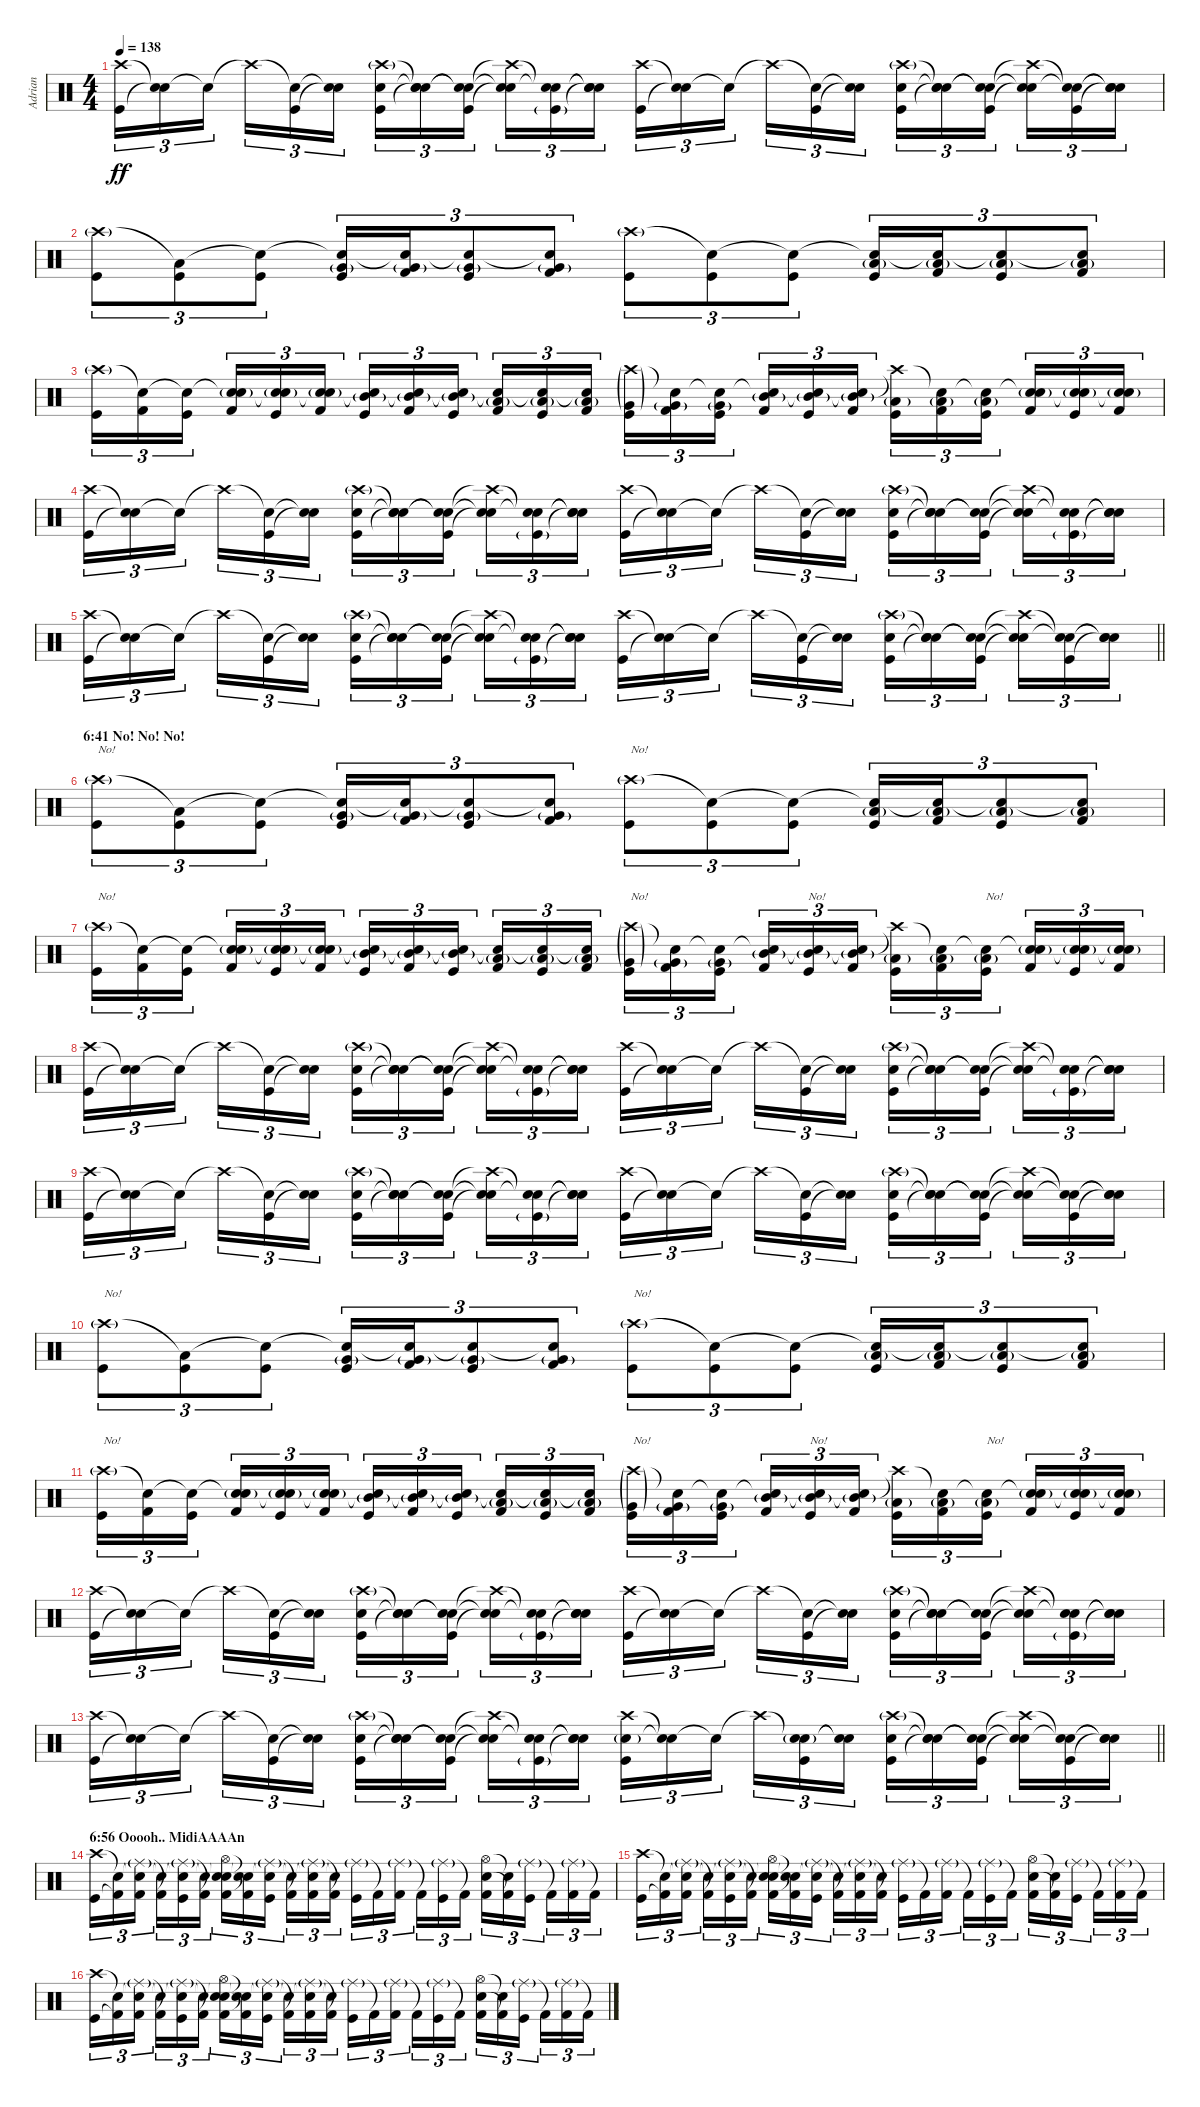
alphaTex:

\track ("Adrian" "Adrian") {instrument percussion}
\staff {score}
\articulation defaults
\ts (4 4)
\tempo 138
\clef neutral
\ks c
("Crash high (hit)" "Kick (hit)").16{tu (3 2) dy ff} ("Snare (hit)"{t} "Snare (hit)"{t}).16{tu (3 2)} "Snare (hit)"{t}.16{tu (3 2) beam splitsecondary} "Crash high (hit)"{t}.16{tu (3 2)} ("Snare (hit)"{t} "Kick (hit)").16{tu (3 2)} ("Snare (hit)"{t} "Snare (hit)"{t}).16{tu (3 2)} ("Crash high (hit)"{g} "Electric Snare (hit)" "Kick (hit)").16{tu (3 2)} ("Snare (hit)"{t} "Snare (hit)"{t} "Snare (hit)"{t}).16{tu (3 2)} ("Snare (hit)"{t} "Snare (hit)"{t} "Kick (hit)").16{tu (3 2) beam splitsecondary} ("Crash high (hit)"{t} "Snare (hit)"{t} "Snare (hit)"{t}).16{tu (3 2)} ("Snare (hit)"{t} "Snare (hit)"{t} "Kick (hit)"{g}).16{tu (3 2)} ("Snare (hit)"{t} "Snare (hit)"{t} "Snare (hit)"{t}).16{tu (3 2)} ("Crash high (hit)" "Kick (hit)").16{tu (3 2)} ("Snare (hit)"{t} "Snare (hit)"{t}).16{tu (3 2)} "Snare (hit)"{t}.16{tu (3 2) beam splitsecondary} "Crash high (hit)"{t}.16{tu (3 2)} ("Snare (hit)"{t} "Kick (hit)").16{tu (3 2)} ("Snare (hit)"{t} "Snare (hit)"{t}).16{tu (3 2)} ("Crash high (hit)"{g} "Electric Snare (hit)" "Kick (hit)").16{tu (3 2)} ("Snare (hit)"{t} "Snare (hit)"{t} "Snare (hit)"{t}).16{tu (3 2)} ("Snare (hit)"{t} "Snare (hit)"{t} "Kick (hit)").16{tu (3 2) beam splitsecondary} ("Crash high (hit)"{t} "Snare (hit)"{t} "Snare (hit)"{t}).16{tu (3 2)} ("Snare (hit)"{t} "Snare (hit)"{t} "Kick (hit)").16{tu (3 2)} ("Snare (hit)"{t} "Snare (hit)"{t} "Snare (hit)"{t}).16{tu (3 2)} |
("Crash high (hit)"{g} "Kick (hit)").8{tu (3 2)} ("Low Floor Tom (hit)"{t} "Kick (hit)").8{tu (3 2)} ("Snare (hit)"{t} "Kick (hit)").8{tu (3 2)} ("Snare (hit)"{t} "Very Low Tom (hit)"{g} "Kick (hit)").16{tu (3 2)} ("Snare (hit)"{t} "Very Low Tom (hit)"{g} "Kick (hit) 2").16{tu (3 2)} ("Snare (hit)"{t} "Very Low Tom (hit)"{g} "Kick (hit)").8{tu (3 2)} ("Snare (hit)"{t} "Very Low Tom (hit)"{g} "Kick (hit) 2").8{tu (3 2)} ("Crash high (hit)"{g} "Kick (hit)").8{tu (3 2)} ("Snare (hit)"{t} "Kick (hit)").8{tu (3 2)} ("Snare (hit)"{t} "Kick (hit)").8{tu (3 2)} ("Snare (hit)"{t} "Low Tom (hit)"{g} "Kick (hit)").16{tu (3 2)} ("Snare (hit)"{t} "Low Tom (hit)"{g} "Kick (hit) 2").16{tu (3 2)} ("Snare (hit)"{t} "Low Tom (hit)"{g} "Kick (hit)").8{tu (3 2)} ("Snare (hit)"{t} "Low Tom (hit)"{g} "Kick (hit) 2").8{tu (3 2)} |
("Crash high (hit)"{g} "Kick (hit)").16{tu (3 2)} ("Snare (hit)"{t} "Kick (hit) 2").16{tu (3 2)} ("Snare (hit)"{t} "Kick (hit)").16{tu (3 2) beam splitsecondary} ("Snare (hit)"{t} "Electric Snare (hit)"{g} "Kick (hit) 2").16{tu (3 2)} ("Snare (hit)"{t} "Electric Snare (hit)"{g} "Kick (hit)").16{tu (3 2)} ("Snare (hit)"{t} "Electric Snare (hit)"{g} "Kick (hit) 2").16{tu (3 2)} ("Snare (hit)"{t} "Mid Tom (hit)"{g} "Kick (hit)").16{tu (3 2)} ("Snare (hit)"{t} "Mid Tom (hit)"{g} "Kick (hit) 2").16{tu (3 2)} ("Snare (hit)"{t} "Mid Tom (hit)"{g} "Kick (hit)").16{tu (3 2) beam splitsecondary} ("Snare (hit)"{t} "Low Tom (hit)"{g} "Kick (hit) 2").16{tu (3 2)} ("Snare (hit)"{t} "Low Tom (hit)"{g} "Kick (hit)").16{tu (3 2)} ("Snare (hit)"{t} "Low Tom (hit)"{g} "Kick (hit) 2").16{tu (3 2)} ("Crash high (hit)"{g} "Very Low Tom (hit)"{g} "Kick (hit)").16{tu (3 2)} ("Snare (hit)"{t} "Very Low Tom (hit)"{g} "Kick (hit) 2").16{tu (3 2)} ("Snare (hit)"{t} "Very Low Tom (hit)"{g} "Kick (hit)").16{tu (3 2) beam splitsecondary} ("Snare (hit)"{t} "Mid Tom (hit)"{g} "Kick (hit) 2").16{tu (3 2)} ("Snare (hit)"{t} "Mid Tom (hit)"{g} "Kick (hit)").16{tu (3 2)} ("Snare (hit)"{t} "Mid Tom (hit)"{g} "Kick (hit) 2").16{tu (3 2)} ("Crash high (hit)"{t} "Low Tom (hit)"{g} "Kick (hit)").16{tu (3 2)} ("Snare (hit)"{t} "Low Tom (hit)"{g} "Kick (hit) 2").16{tu (3 2)} ("Snare (hit)"{t} "Low Tom (hit)"{g} "Kick (hit)").16{tu (3 2) beam splitsecondary} ("Snare (hit)"{t} "Electric Snare (hit)"{g} "Kick (hit) 2").16{tu (3 2)} ("Snare (hit)"{t} "Electric Snare (hit)"{g} "Kick (hit)").16{tu (3 2)} ("Snare (hit)"{t} "Electric Snare (hit)"{g} "Kick (hit) 2").16{tu (3 2)} |
("Crash high (hit)" "Kick (hit)").16{tu (3 2)} ("Snare (hit)"{t} "Snare (hit)"{t}).16{tu (3 2)} "Snare (hit)"{t}.16{tu (3 2) beam splitsecondary} "Crash high (hit)"{t}.16{tu (3 2)} ("Snare (hit)"{t} "Kick (hit)").16{tu (3 2)} ("Snare (hit)"{t} "Snare (hit)"{t}).16{tu (3 2)} ("Crash high (hit)"{g} "Electric Snare (hit)" "Kick (hit)").16{tu (3 2)} ("Snare (hit)"{t} "Snare (hit)"{t} "Snare (hit)"{t}).16{tu (3 2)} ("Snare (hit)"{t} "Snare (hit)"{t} "Kick (hit)").16{tu (3 2) beam splitsecondary} ("Crash high (hit)"{t} "Snare (hit)"{t} "Snare (hit)"{t}).16{tu (3 2)} ("Snare (hit)"{t} "Snare (hit)"{t} "Kick (hit)"{g}).16{tu (3 2)} ("Snare (hit)"{t} "Snare (hit)"{t} "Snare (hit)"{t}).16{tu (3 2)} ("Crash high (hit)" "Kick (hit)").16{tu (3 2)} ("Snare (hit)"{t} "Snare (hit)"{t}).16{tu (3 2)} "Snare (hit)"{t}.16{tu (3 2) beam splitsecondary} "Crash high (hit)"{t}.16{tu (3 2)} ("Snare (hit)"{t} "Kick (hit)").16{tu (3 2)} ("Snare (hit)"{t} "Snare (hit)"{t}).16{tu (3 2)} ("Crash high (hit)"{g} "Electric Snare (hit)" "Kick (hit)").16{tu (3 2)} ("Snare (hit)"{t} "Snare (hit)"{t} "Snare (hit)"{t}).16{tu (3 2)} ("Snare (hit)"{t} "Snare (hit)"{t} "Kick (hit)").16{tu (3 2) beam splitsecondary} ("Crash high (hit)"{t} "Snare (hit)"{t} "Snare (hit)"{t}).16{tu (3 2)} ("Snare (hit)"{t} "Snare (hit)"{t} "Kick (hit)"{g}).16{tu (3 2)} ("Snare (hit)"{t} "Snare (hit)"{t} "Snare (hit)"{t}).16{tu (3 2)} |
\barLineRight lightlight
("Crash high (hit)" "Kick (hit)").16{tu (3 2)} ("Snare (hit)"{t} "Snare (hit)"{t}).16{tu (3 2)} "Snare (hit)"{t}.16{tu (3 2) beam splitsecondary} "Crash high (hit)"{t}.16{tu (3 2)} ("Snare (hit)"{t} "Kick (hit)").16{tu (3 2)} ("Snare (hit)"{t} "Snare (hit)"{t}).16{tu (3 2)} ("Crash high (hit)"{g} "Electric Snare (hit)" "Kick (hit)").16{tu (3 2)} ("Snare (hit)"{t} "Snare (hit)"{t} "Snare (hit)"{t}).16{tu (3 2)} ("Snare (hit)"{t} "Snare (hit)"{t} "Kick (hit)").16{tu (3 2) beam splitsecondary} ("Crash high (hit)"{t} "Snare (hit)"{t} "Snare (hit)"{t}).16{tu (3 2)} ("Snare (hit)"{t} "Snare (hit)"{t} "Kick (hit)"{g}).16{tu (3 2)} ("Snare (hit)"{t} "Snare (hit)"{t} "Snare (hit)"{t}).16{tu (3 2)} ("Crash high (hit)" "Kick (hit)").16{tu (3 2)} ("Snare (hit)"{t} "Snare (hit)"{t}).16{tu (3 2)} "Snare (hit)"{t}.16{tu (3 2) beam splitsecondary} "Crash high (hit)"{t}.16{tu (3 2)} ("Snare (hit)"{t} "Kick (hit)").16{tu (3 2)} ("Snare (hit)"{t} "Snare (hit)"{t}).16{tu (3 2)} ("Crash high (hit)"{g} "Electric Snare (hit)" "Kick (hit)").16{tu (3 2)} ("Snare (hit)"{t} "Snare (hit)"{t} "Snare (hit)"{t}).16{tu (3 2)} ("Snare (hit)"{t} "Snare (hit)"{t} "Kick (hit)").16{tu (3 2) beam splitsecondary} ("Crash high (hit)"{t} "Snare (hit)"{t} "Snare (hit)"{t}).16{tu (3 2)} ("Snare (hit)"{t} "Snare (hit)"{t} "Kick (hit)").16{tu (3 2)} ("Snare (hit)"{t} "Snare (hit)"{t} "Snare (hit)"{t}).16{tu (3 2)} |
\section ("" "6:41 No! No! No!")
("Crash high (hit)"{g} "Kick (hit)").8{tu (3 2) txt "No!"} ("Low Floor Tom (hit)"{t} "Kick (hit)").8{tu (3 2)} ("Snare (hit)"{t} "Kick (hit)").8{tu (3 2)} ("Snare (hit)"{t} "Very Low Tom (hit)"{g} "Kick (hit)").16{tu (3 2)} ("Snare (hit)"{t} "Very Low Tom (hit)"{g} "Kick (hit) 2").16{tu (3 2)} ("Snare (hit)"{t} "Very Low Tom (hit)"{g} "Kick (hit)").8{tu (3 2)} ("Snare (hit)"{t} "Very Low Tom (hit)"{g} "Kick (hit) 2").8{tu (3 2)} ("Crash high (hit)"{g} "Kick (hit)").8{tu (3 2) txt "No!"} ("Snare (hit)"{t} "Kick (hit)").8{tu (3 2)} ("Snare (hit)"{t} "Kick (hit)").8{tu (3 2)} ("Snare (hit)"{t} "Low Tom (hit)"{g} "Kick (hit)").16{tu (3 2)} ("Snare (hit)"{t} "Low Tom (hit)"{g} "Kick (hit) 2").16{tu (3 2)} ("Snare (hit)"{t} "Low Tom (hit)"{g} "Kick (hit)").8{tu (3 2)} ("Snare (hit)"{t} "Low Tom (hit)"{g} "Kick (hit) 2").8{tu (3 2)} |
("Crash high (hit)"{g} "Kick (hit)").16{tu (3 2) txt "No!"} ("Snare (hit)"{t} "Kick (hit) 2").16{tu (3 2)} ("Snare (hit)"{t} "Kick (hit)").16{tu (3 2) beam splitsecondary} ("Snare (hit)"{t} "Electric Snare (hit)"{g} "Kick (hit) 2").16{tu (3 2)} ("Snare (hit)"{t} "Electric Snare (hit)"{g} "Kick (hit)").16{tu (3 2)} ("Snare (hit)"{t} "Electric Snare (hit)"{g} "Kick (hit) 2").16{tu (3 2)} ("Snare (hit)"{t} "Mid Tom (hit)"{g} "Kick (hit)").16{tu (3 2)} ("Snare (hit)"{t} "Mid Tom (hit)"{g} "Kick (hit) 2").16{tu (3 2)} ("Snare (hit)"{t} "Mid Tom (hit)"{g} "Kick (hit)").16{tu (3 2) beam splitsecondary} ("Snare (hit)"{t} "Low Tom (hit)"{g} "Kick (hit) 2").16{tu (3 2)} ("Snare (hit)"{t} "Low Tom (hit)"{g} "Kick (hit)").16{tu (3 2)} ("Snare (hit)"{t} "Low Tom (hit)"{g} "Kick (hit) 2").16{tu (3 2)} ("Crash high (hit)"{g} "Very Low Tom (hit)"{g} "Kick (hit)").16{tu (3 2) txt "No!"} ("Snare (hit)"{t} "Very Low Tom (hit)"{g} "Kick (hit) 2").16{tu (3 2)} ("Snare (hit)"{t} "Very Low Tom (hit)"{g} "Kick (hit)").16{tu (3 2) beam splitsecondary} ("Snare (hit)"{t} "Mid Tom (hit)"{g} "Kick (hit) 2").16{tu (3 2)} ("Snare (hit)"{t} "Mid Tom (hit)"{g} "Kick (hit)").16{tu (3 2) txt "No!"} ("Snare (hit)"{t} "Mid Tom (hit)"{g} "Kick (hit) 2").16{tu (3 2)} ("Crash high (hit)"{t} "Low Tom (hit)"{g} "Kick (hit)").16{tu (3 2)} ("Snare (hit)"{t} "Low Tom (hit)"{g} "Kick (hit) 2").16{tu (3 2)} ("Snare (hit)"{t} "Low Tom (hit)"{g} "Kick (hit)").16{tu (3 2) txt "No!" beam splitsecondary} ("Snare (hit)"{t} "Electric Snare (hit)"{g} "Kick (hit) 2").16{tu (3 2)} ("Snare (hit)"{t} "Electric Snare (hit)"{g} "Kick (hit)").16{tu (3 2)} ("Snare (hit)"{t} "Electric Snare (hit)"{g} "Kick (hit) 2").16{tu (3 2)} |
("Crash high (hit)" "Kick (hit)").16{tu (3 2)} ("Snare (hit)"{t} "Snare (hit)"{t}).16{tu (3 2)} "Snare (hit)"{t}.16{tu (3 2) beam splitsecondary} "Crash high (hit)"{t}.16{tu (3 2)} ("Snare (hit)"{t} "Kick (hit)").16{tu (3 2)} ("Snare (hit)"{t} "Snare (hit)"{t}).16{tu (3 2)} ("Crash high (hit)"{g} "Electric Snare (hit)" "Kick (hit)").16{tu (3 2)} ("Snare (hit)"{t} "Snare (hit)"{t} "Snare (hit)"{t}).16{tu (3 2)} ("Snare (hit)"{t} "Snare (hit)"{t} "Kick (hit)").16{tu (3 2) beam splitsecondary} ("Crash high (hit)"{t} "Snare (hit)"{t} "Snare (hit)"{t}).16{tu (3 2)} ("Snare (hit)"{t} "Snare (hit)"{t} "Kick (hit)"{g}).16{tu (3 2)} ("Snare (hit)"{t} "Snare (hit)"{t} "Snare (hit)"{t}).16{tu (3 2)} ("Crash high (hit)" "Kick (hit)").16{tu (3 2)} ("Snare (hit)"{t} "Snare (hit)"{t}).16{tu (3 2)} "Snare (hit)"{t}.16{tu (3 2) beam splitsecondary} "Crash high (hit)"{t}.16{tu (3 2)} ("Snare (hit)"{t} "Kick (hit)").16{tu (3 2)} ("Snare (hit)"{t} "Snare (hit)"{t}).16{tu (3 2)} ("Crash high (hit)"{g} "Electric Snare (hit)" "Kick (hit)").16{tu (3 2)} ("Snare (hit)"{t} "Snare (hit)"{t} "Snare (hit)"{t}).16{tu (3 2)} ("Snare (hit)"{t} "Snare (hit)"{t} "Kick (hit)").16{tu (3 2) beam splitsecondary} ("Crash high (hit)"{t} "Snare (hit)"{t} "Snare (hit)"{t}).16{tu (3 2)} ("Snare (hit)"{t} "Snare (hit)"{t} "Kick (hit)"{g}).16{tu (3 2)} ("Snare (hit)"{t} "Snare (hit)"{t} "Snare (hit)"{t}).16{tu (3 2)} |
("Crash high (hit)" "Kick (hit)").16{tu (3 2)} ("Snare (hit)"{t} "Snare (hit)"{t}).16{tu (3 2)} "Snare (hit)"{t}.16{tu (3 2) beam splitsecondary} "Crash high (hit)"{t}.16{tu (3 2)} ("Snare (hit)"{t} "Kick (hit)").16{tu (3 2)} ("Snare (hit)"{t} "Snare (hit)"{t}).16{tu (3 2)} ("Crash high (hit)"{g} "Electric Snare (hit)" "Kick (hit)").16{tu (3 2)} ("Snare (hit)"{t} "Snare (hit)"{t} "Snare (hit)"{t}).16{tu (3 2)} ("Snare (hit)"{t} "Snare (hit)"{t} "Kick (hit)").16{tu (3 2) beam splitsecondary} ("Crash high (hit)"{t} "Snare (hit)"{t} "Snare (hit)"{t}).16{tu (3 2)} ("Snare (hit)"{t} "Snare (hit)"{t} "Kick (hit)"{g}).16{tu (3 2)} ("Snare (hit)"{t} "Snare (hit)"{t} "Snare (hit)"{t}).16{tu (3 2)} ("Crash high (hit)" "Kick (hit)").16{tu (3 2)} ("Snare (hit)"{t} "Snare (hit)"{t}).16{tu (3 2)} "Snare (hit)"{t}.16{tu (3 2) beam splitsecondary} "Crash high (hit)"{t}.16{tu (3 2)} ("Snare (hit)"{t} "Kick (hit)").16{tu (3 2)} ("Snare (hit)"{t} "Snare (hit)"{t}).16{tu (3 2)} ("Crash high (hit)"{g} "Electric Snare (hit)" "Kick (hit)").16{tu (3 2)} ("Snare (hit)"{t} "Snare (hit)"{t} "Snare (hit)"{t}).16{tu (3 2)} ("Snare (hit)"{t} "Snare (hit)"{t} "Kick (hit)").16{tu (3 2) beam splitsecondary} ("Crash high (hit)"{t} "Snare (hit)"{t} "Snare (hit)"{t}).16{tu (3 2)} ("Snare (hit)"{t} "Snare (hit)"{t} "Kick (hit)").16{tu (3 2)} ("Snare (hit)"{t} "Snare (hit)"{t} "Snare (hit)"{t}).16{tu (3 2)} |
("Crash high (hit)"{g} "Kick (hit)").8{tu (3 2) txt "No!"} ("Low Floor Tom (hit)"{t} "Kick (hit)").8{tu (3 2)} ("Snare (hit)"{t} "Kick (hit)").8{tu (3 2)} ("Snare (hit)"{t} "Very Low Tom (hit)"{g} "Kick (hit)").16{tu (3 2)} ("Snare (hit)"{t} "Very Low Tom (hit)"{g} "Kick (hit) 2").16{tu (3 2)} ("Snare (hit)"{t} "Very Low Tom (hit)"{g} "Kick (hit)").8{tu (3 2)} ("Snare (hit)"{t} "Very Low Tom (hit)"{g} "Kick (hit) 2").8{tu (3 2)} ("Crash high (hit)"{g} "Kick (hit)").8{tu (3 2) txt "No!"} ("Snare (hit)"{t} "Kick (hit)").8{tu (3 2)} ("Snare (hit)"{t} "Kick (hit)").8{tu (3 2)} ("Snare (hit)"{t} "Low Tom (hit)"{g} "Kick (hit)").16{tu (3 2)} ("Snare (hit)"{t} "Low Tom (hit)"{g} "Kick (hit) 2").16{tu (3 2)} ("Snare (hit)"{t} "Low Tom (hit)"{g} "Kick (hit)").8{tu (3 2)} ("Snare (hit)"{t} "Low Tom (hit)"{g} "Kick (hit) 2").8{tu (3 2)} |
("Crash high (hit)"{g} "Kick (hit)").16{tu (3 2) txt "No!"} ("Snare (hit)"{t} "Kick (hit) 2").16{tu (3 2)} ("Snare (hit)"{t} "Kick (hit)").16{tu (3 2) beam splitsecondary} ("Snare (hit)"{t} "Electric Snare (hit)"{g} "Kick (hit) 2").16{tu (3 2)} ("Snare (hit)"{t} "Electric Snare (hit)"{g} "Kick (hit)").16{tu (3 2)} ("Snare (hit)"{t} "Electric Snare (hit)"{g} "Kick (hit) 2").16{tu (3 2)} ("Snare (hit)"{t} "Mid Tom (hit)"{g} "Kick (hit)").16{tu (3 2)} ("Snare (hit)"{t} "Mid Tom (hit)"{g} "Kick (hit) 2").16{tu (3 2)} ("Snare (hit)"{t} "Mid Tom (hit)"{g} "Kick (hit)").16{tu (3 2) beam splitsecondary} ("Snare (hit)"{t} "Low Tom (hit)"{g} "Kick (hit) 2").16{tu (3 2)} ("Snare (hit)"{t} "Low Tom (hit)"{g} "Kick (hit)").16{tu (3 2)} ("Snare (hit)"{t} "Low Tom (hit)"{g} "Kick (hit) 2").16{tu (3 2)} ("Crash high (hit)"{g} "Very Low Tom (hit)"{g} "Kick (hit)").16{tu (3 2) txt "No!"} ("Snare (hit)"{t} "Very Low Tom (hit)"{g} "Kick (hit) 2").16{tu (3 2)} ("Snare (hit)"{t} "Very Low Tom (hit)"{g} "Kick (hit)").16{tu (3 2) beam splitsecondary} ("Snare (hit)"{t} "Mid Tom (hit)"{g} "Kick (hit) 2").16{tu (3 2)} ("Snare (hit)"{t} "Mid Tom (hit)"{g} "Kick (hit)").16{tu (3 2) txt "No!"} ("Snare (hit)"{t} "Mid Tom (hit)"{g} "Kick (hit) 2").16{tu (3 2)} ("Crash high (hit)"{t} "Low Tom (hit)"{g} "Kick (hit)").16{tu (3 2)} ("Snare (hit)"{t} "Low Tom (hit)"{g} "Kick (hit) 2").16{tu (3 2)} ("Snare (hit)"{t} "Low Tom (hit)"{g} "Kick (hit)").16{tu (3 2) txt "No!" beam splitsecondary} ("Snare (hit)"{t} "Electric Snare (hit)"{g} "Kick (hit) 2").16{tu (3 2)} ("Snare (hit)"{t} "Electric Snare (hit)"{g} "Kick (hit)").16{tu (3 2)} ("Snare (hit)"{t} "Electric Snare (hit)"{g} "Kick (hit) 2").16{tu (3 2)} |
("Crash high (hit)" "Kick (hit)").16{tu (3 2)} ("Snare (hit)"{t} "Snare (hit)"{t}).16{tu (3 2)} "Snare (hit)"{t}.16{tu (3 2) beam splitsecondary} "Crash high (hit)"{t}.16{tu (3 2)} ("Snare (hit)"{t} "Kick (hit)").16{tu (3 2)} ("Snare (hit)"{t} "Snare (hit)"{t}).16{tu (3 2)} ("Crash high (hit)"{g} "Electric Snare (hit)" "Kick (hit)").16{tu (3 2)} ("Snare (hit)"{t} "Snare (hit)"{t} "Snare (hit)"{t}).16{tu (3 2)} ("Snare (hit)"{t} "Snare (hit)"{t} "Kick (hit)").16{tu (3 2) beam splitsecondary} ("Crash high (hit)"{t} "Snare (hit)"{t} "Snare (hit)"{t}).16{tu (3 2)} ("Snare (hit)"{t} "Snare (hit)"{t} "Kick (hit)"{g}).16{tu (3 2)} ("Snare (hit)"{t} "Snare (hit)"{t} "Snare (hit)"{t}).16{tu (3 2)} ("Crash high (hit)" "Kick (hit)").16{tu (3 2)} ("Snare (hit)"{t} "Snare (hit)"{t}).16{tu (3 2)} "Snare (hit)"{t}.16{tu (3 2) beam splitsecondary} "Crash high (hit)"{t}.16{tu (3 2)} ("Snare (hit)"{t} "Kick (hit)").16{tu (3 2)} ("Snare (hit)"{t} "Snare (hit)"{t}).16{tu (3 2)} ("Crash high (hit)"{g} "Electric Snare (hit)" "Kick (hit)").16{tu (3 2)} ("Snare (hit)"{t} "Snare (hit)"{t} "Snare (hit)"{t}).16{tu (3 2)} ("Snare (hit)"{t} "Snare (hit)"{t} "Kick (hit)").16{tu (3 2) beam splitsecondary} ("Crash high (hit)"{t} "Snare (hit)"{t} "Snare (hit)"{t}).16{tu (3 2)} ("Snare (hit)"{t} "Snare (hit)"{t} "Kick (hit)"{g}).16{tu (3 2)} ("Snare (hit)"{t} "Snare (hit)"{t} "Snare (hit)"{t}).16{tu (3 2)} |
\barLineRight lightlight
("Crash high (hit)" "Kick (hit)").16{tu (3 2)} ("Snare (hit)"{t} "Snare (hit)"{t}).16{tu (3 2)} "Snare (hit)"{t}.16{tu (3 2) beam splitsecondary} "Crash high (hit)"{t}.16{tu (3 2)} ("Snare (hit)"{t} "Kick (hit)").16{tu (3 2)} ("Snare (hit)"{t} "Snare (hit)"{t}).16{tu (3 2)} ("Crash high (hit)"{g} "Electric Snare (hit)" "Kick (hit)").16{tu (3 2)} ("Snare (hit)"{t} "Snare (hit)"{t} "Snare (hit)"{t}).16{tu (3 2)} ("Snare (hit)"{t} "Snare (hit)"{t} "Kick (hit)").16{tu (3 2) beam splitsecondary} ("Crash high (hit)"{t} "Snare (hit)"{t} "Snare (hit)"{t}).16{tu (3 2)} ("Snare (hit)"{t} "Snare (hit)"{t} "Kick (hit)"{g}).16{tu (3 2)} ("Snare (hit)"{t} "Snare (hit)"{t} "Snare (hit)"{t}).16{tu (3 2)} ("Crash high (hit)" "Electric Snare (hit)"{g} "Kick (hit)").16{tu (3 2)} ("Snare (hit)"{t} "Snare (hit)"{t}).16{tu (3 2)} "Snare (hit)"{t}.16{tu (3 2) beam splitsecondary} "Crash high (hit)"{t}.16{tu (3 2)} ("Snare (hit)"{t} "Electric Snare (hit)"{g} "Kick (hit)").16{tu (3 2)} ("Snare (hit)"{t} "Snare (hit)"{t}).16{tu (3 2)} ("Crash high (hit)"{g} "Electric Snare (hit)" "Kick (hit)").16{tu (3 2)} ("Snare (hit)"{t} "Snare (hit)"{t} "Snare (hit)"{t}).16{tu (3 2)} ("Snare (hit)"{t} "Snare (hit)"{t} "Kick (hit)").16{tu (3 2) beam splitsecondary} ("Crash high (hit)"{t} "Snare (hit)"{t} "Snare (hit)"{t}).16{tu (3 2)} ("Snare (hit)"{t} "Snare (hit) 2"{t} "Kick (hit)").16{tu (3 2)} ("Snare (hit)"{t} "Snare (hit)"{t} "Snare (hit)"{t}).16{tu (3 2)} |
\section ("" "6:56 Ooooh.. MidiAAAAn")
("Crash high (hit)" "Kick (hit)").16{tu (3 2)} ("Snare (hit)"{t} "Kick (hit) 2"{t}).16{tu (3 2)} ("Snare (hit)"{t} "Ride (middle)"{g} "Kick (hit) 2").16{tu (3 2) beam splitsecondary} ("Snare (hit)"{t} "Kick (hit) 2"{t}).16{tu (3 2)} ("Snare (hit)"{t} "Ride (middle)"{g} "Kick (hit)").16{tu (3 2)} ("Snare (hit)"{t} "Kick (hit) 2"{t}).16{tu (3 2)} ("Snare (hit)"{t} "Hi-Hat (open)" "Electric Snare (hit)" "Kick (hit) 2").16{tu (3 2)} ("Snare (hit)"{t} "Snare (hit)"{t} "Kick (hit) 2"{t}).16{tu (3 2)} ("Snare (hit)"{t} "Ride (middle)"{g} "Kick (hit)").16{tu (3 2) beam splitsecondary} ("Snare (hit)"{t} "Kick (hit) 2"{t}).16{tu (3 2)} ("Snare (hit)"{t} "Ride (middle)"{g} "Kick (hit) 2").16{tu (3 2)} ("Snare (hit)"{t} "Kick (hit) 2"{t}).16{tu (3 2)} ("Ride (middle)"{g} "Kick (hit)").16{tu (3 2)} "Kick (hit) 2"{t}.16{tu (3 2)} ("Ride (middle)"{g} "Kick (hit) 2").16{tu (3 2) beam splitsecondary} "Kick (hit) 2"{t}.16{tu (3 2)} ("Ride (middle)"{g} "Kick (hit)").16{tu (3 2)} "Kick (hit) 2"{t}.16{tu (3 2)} ("Hi-Hat (open)" "Electric Snare (hit)" "Kick (hit) 2").16{tu (3 2)} ("Snare (hit)"{t} "Kick (hit) 2"{t}).16{tu (3 2)} ("Ride (middle)"{g} "Kick (hit)").16{tu (3 2) beam splitsecondary} "Kick (hit) 2"{t}.16{tu (3 2)} ("Ride (middle)"{g} "Kick (hit) 2").16{tu (3 2)} "Kick (hit) 2"{t}.16{tu (3 2)} |
("Crash high (hit)" "Kick (hit)").16{tu (3 2)} ("Snare (hit)"{t} "Kick (hit) 2"{t}).16{tu (3 2)} ("Snare (hit)"{t} "Ride (middle)"{g} "Kick (hit) 2").16{tu (3 2) beam splitsecondary} ("Snare (hit)"{t} "Kick (hit) 2"{t}).16{tu (3 2)} ("Snare (hit)"{t} "Ride (middle)"{g} "Kick (hit)").16{tu (3 2)} ("Snare (hit)"{t} "Kick (hit) 2"{t}).16{tu (3 2)} ("Snare (hit)"{t} "Hi-Hat (open)" "Electric Snare (hit)" "Kick (hit) 2").16{tu (3 2)} ("Snare (hit)"{t} "Snare (hit)"{t} "Kick (hit) 2"{t}).16{tu (3 2)} ("Snare (hit)"{t} "Ride (middle)"{g} "Kick (hit)").16{tu (3 2) beam splitsecondary} ("Snare (hit)"{t} "Kick (hit) 2"{t}).16{tu (3 2)} ("Snare (hit)"{t} "Ride (middle)"{g} "Kick (hit) 2").16{tu (3 2)} ("Snare (hit)"{t} "Kick (hit) 2"{t}).16{tu (3 2)} ("Ride (middle)"{g} "Kick (hit)").16{tu (3 2)} "Kick (hit) 2"{t}.16{tu (3 2)} ("Ride (middle)"{g} "Kick (hit) 2").16{tu (3 2) beam splitsecondary} "Kick (hit) 2"{t}.16{tu (3 2)} ("Ride (middle)"{g} "Kick (hit)").16{tu (3 2)} "Kick (hit) 2"{t}.16{tu (3 2)} ("Hi-Hat (open)" "Electric Snare (hit)" "Kick (hit) 2").16{tu (3 2)} ("Snare (hit)"{t} "Kick (hit) 2"{t}).16{tu (3 2)} ("Ride (middle)"{g} "Kick (hit)").16{tu (3 2) beam splitsecondary} "Kick (hit) 2"{t}.16{tu (3 2)} ("Ride (middle)"{g} "Kick (hit) 2").16{tu (3 2)} "Kick (hit) 2"{t}.16{tu (3 2)} |
("Crash high (hit)" "Kick (hit)").16{tu (3 2)} ("Snare (hit)"{t} "Kick (hit) 2"{t}).16{tu (3 2)} ("Snare (hit)"{t} "Ride (middle)"{g} "Kick (hit) 2").16{tu (3 2) beam splitsecondary} ("Snare (hit)"{t} "Kick (hit) 2"{t}).16{tu (3 2)} ("Snare (hit)"{t} "Ride (middle)"{g} "Kick (hit)").16{tu (3 2)} ("Snare (hit)"{t} "Kick (hit) 2"{t}).16{tu (3 2)} ("Snare (hit)"{t} "Hi-Hat (open)" "Electric Snare (hit)" "Kick (hit) 2").16{tu (3 2)} ("Snare (hit)"{t} "Snare (hit)"{t} "Kick (hit) 2"{t}).16{tu (3 2)} ("Snare (hit)"{t} "Ride (middle)"{g} "Kick (hit)").16{tu (3 2) beam splitsecondary} ("Snare (hit)"{t} "Kick (hit) 2"{t}).16{tu (3 2)} ("Snare (hit)"{t} "Ride (middle)"{g} "Kick (hit) 2").16{tu (3 2)} ("Snare (hit)"{t} "Kick (hit) 2"{t}).16{tu (3 2)} ("Ride (middle)"{g} "Kick (hit)").16{tu (3 2)} "Kick (hit) 2"{t}.16{tu (3 2)} ("Ride (middle)"{g} "Kick (hit) 2").16{tu (3 2) beam splitsecondary} "Kick (hit) 2"{t}.16{tu (3 2)} ("Ride (middle)"{g} "Kick (hit)").16{tu (3 2)} "Kick (hit) 2"{t}.16{tu (3 2)} ("Hi-Hat (open)" "Electric Snare (hit)" "Kick (hit) 2").16{tu (3 2)} ("Snare (hit)"{t} "Kick (hit) 2"{t}).16{tu (3 2)} ("Ride (middle)"{g} "Kick (hit)").16{tu (3 2) beam splitsecondary} "Kick (hit) 2"{t}.16{tu (3 2)} ("Ride (middle)"{g} "Kick (hit) 2").16{tu (3 2)} "Kick (hit) 2"{t}.16{tu (3 2)}
